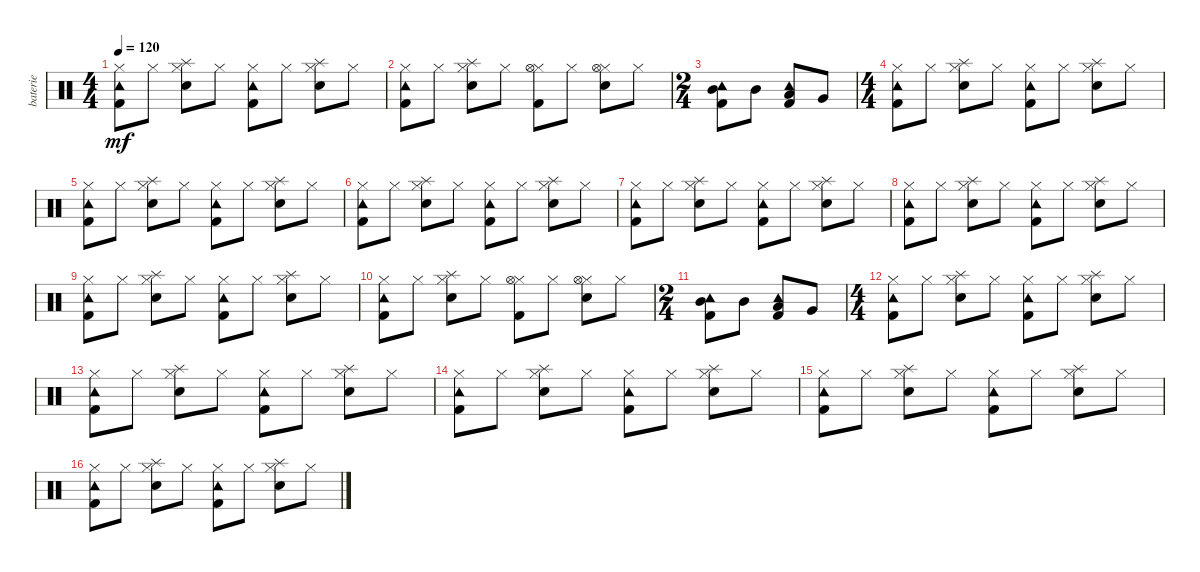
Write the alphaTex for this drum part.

\track ("baterie" "baterie") {instrument percussion}
\staff {score}
\articulation defaults
\ts (4 4)
\tempo 120
\clef neutral
\ks c
("Hi-Hat (closed)" "Tambourine (hit)" "Kick (hit) 2").8{dy mf} "Hi-Hat (closed)".8 ("Snare (hit) 2" "Splash (hit)" "Hi-Hat (closed)").8 "Hi-Hat (closed)".8 ("Kick (hit) 2" "Tambourine (hit)" "Hi-Hat (closed)").8 "Hi-Hat (closed)".8 ("Snare (hit) 2" "Splash (hit)" "Hi-Hat (closed)").8 "Hi-Hat (closed)".8 |
("Hi-Hat (closed)" "Tambourine (hit)" "Kick (hit) 2").8 "Hi-Hat (closed)".8 ("Snare (hit) 2" "Splash (hit)" "Hi-Hat (closed)").8 "Hi-Hat (closed)".8 ("Kick (hit) 2" "Hi-Hat (closed)" "Hi-Hat (open)").8 "Hi-Hat (closed)".8 ("Snare (hit) 2" "Hi-Hat (closed)" "Hi-Hat (open)").8 "Hi-Hat (closed)".8 |
\ts (2 4)
("Tambourine (hit)" "Kick (hit) 2" "Mid Tom (hit)").8 "Mid Tom (hit)".8 ("Low Tom (hit)" "Tambourine (hit)" "Kick (hit) 2").8 "Very Low Tom (hit)".8 |
\ts (4 4)
("Hi-Hat (closed)" "Tambourine (hit)" "Kick (hit) 2").8 "Hi-Hat (closed)".8 ("Snare (hit) 2" "Splash (hit)" "Hi-Hat (closed)").8 "Hi-Hat (closed)".8 ("Kick (hit) 2" "Tambourine (hit)" "Hi-Hat (closed)").8 "Hi-Hat (closed)".8 ("Snare (hit) 2" "Splash (hit)" "Hi-Hat (closed)").8 "Hi-Hat (closed)".8 |
("Hi-Hat (closed)" "Tambourine (hit)" "Kick (hit) 2").8 "Hi-Hat (closed)".8 ("Snare (hit) 2" "Splash (hit)" "Hi-Hat (closed)").8 "Hi-Hat (closed)".8 ("Kick (hit) 2" "Tambourine (hit)" "Hi-Hat (closed)").8 "Hi-Hat (closed)".8 ("Snare (hit) 2" "Splash (hit)" "Hi-Hat (closed)").8 "Hi-Hat (closed)".8 |
("Hi-Hat (closed)" "Tambourine (hit)" "Kick (hit) 2").8 "Hi-Hat (closed)".8 ("Snare (hit) 2" "Splash (hit)" "Hi-Hat (closed)").8 "Hi-Hat (closed)".8 ("Kick (hit) 2" "Tambourine (hit)" "Hi-Hat (closed)").8 "Hi-Hat (closed)".8 ("Snare (hit) 2" "Splash (hit)" "Hi-Hat (closed)").8 "Hi-Hat (closed)".8 |
("Hi-Hat (closed)" "Tambourine (hit)" "Kick (hit) 2").8 "Hi-Hat (closed)".8 ("Snare (hit) 2" "Splash (hit)" "Hi-Hat (closed)").8 "Hi-Hat (closed)".8 ("Kick (hit) 2" "Tambourine (hit)" "Hi-Hat (closed)").8 "Hi-Hat (closed)".8 ("Snare (hit) 2" "Splash (hit)" "Hi-Hat (closed)").8 "Hi-Hat (closed)".8 |
("Hi-Hat (closed)" "Tambourine (hit)" "Kick (hit) 2").8 "Hi-Hat (closed)".8 ("Snare (hit) 2" "Splash (hit)" "Hi-Hat (closed)").8 "Hi-Hat (closed)".8 ("Kick (hit) 2" "Tambourine (hit)" "Hi-Hat (closed)").8 "Hi-Hat (closed)".8 ("Snare (hit) 2" "Splash (hit)" "Hi-Hat (closed)").8 "Hi-Hat (closed)".8 |
("Hi-Hat (closed)" "Tambourine (hit)" "Kick (hit) 2").8 "Hi-Hat (closed)".8 ("Snare (hit) 2" "Splash (hit)" "Hi-Hat (closed)").8 "Hi-Hat (closed)".8 ("Kick (hit) 2" "Tambourine (hit)" "Hi-Hat (closed)").8 "Hi-Hat (closed)".8 ("Snare (hit) 2" "Splash (hit)" "Hi-Hat (closed)").8 "Hi-Hat (closed)".8 |
("Hi-Hat (closed)" "Tambourine (hit)" "Kick (hit) 2").8 "Hi-Hat (closed)".8 ("Snare (hit) 2" "Splash (hit)" "Hi-Hat (closed)").8 "Hi-Hat (closed)".8 ("Kick (hit) 2" "Hi-Hat (closed)" "Hi-Hat (open)").8 "Hi-Hat (closed)".8 ("Snare (hit) 2" "Hi-Hat (closed)" "Hi-Hat (open)").8 "Hi-Hat (closed)".8 |
\ts (2 4)
("Tambourine (hit)" "Kick (hit) 2" "Mid Tom (hit)").8 "Mid Tom (hit)".8 ("Low Tom (hit)" "Tambourine (hit)" "Kick (hit) 2").8 "Very Low Tom (hit)".8 |
\ts (4 4)
("Kick (hit) 2" "Tambourine (hit)" "Hi-Hat (closed)").8 "Hi-Hat (closed)".8 ("Snare (hit) 2" "Splash (hit)" "Hi-Hat (closed)").8 "Hi-Hat (closed)".8 ("Kick (hit) 2" "Tambourine (hit)" "Hi-Hat (closed)").8 "Hi-Hat (closed)".8 ("Snare (hit) 2" "Splash (hit)" "Hi-Hat (closed)").8 "Hi-Hat (closed)".8 |
("Hi-Hat (closed)" "Tambourine (hit)" "Kick (hit) 2").8 "Hi-Hat (closed)".8 ("Snare (hit) 2" "Splash (hit)" "Hi-Hat (closed)").8 "Hi-Hat (closed)".8 ("Kick (hit) 2" "Tambourine (hit)" "Hi-Hat (closed)").8 "Hi-Hat (closed)".8 ("Snare (hit) 2" "Splash (hit)" "Hi-Hat (closed)").8 "Hi-Hat (closed)".8 |
("Hi-Hat (closed)" "Tambourine (hit)" "Kick (hit) 2").8 "Hi-Hat (closed)".8 ("Snare (hit) 2" "Splash (hit)" "Hi-Hat (closed)").8 "Hi-Hat (closed)".8 ("Kick (hit) 2" "Tambourine (hit)" "Hi-Hat (closed)").8 "Hi-Hat (closed)".8 ("Snare (hit) 2" "Splash (hit)" "Hi-Hat (closed)").8 "Hi-Hat (closed)".8 |
("Hi-Hat (closed)" "Tambourine (hit)" "Kick (hit) 2").8 "Hi-Hat (closed)".8 ("Snare (hit) 2" "Splash (hit)" "Hi-Hat (closed)").8 "Hi-Hat (closed)".8 ("Kick (hit) 2" "Tambourine (hit)" "Hi-Hat (closed)").8 "Hi-Hat (closed)".8 ("Snare (hit) 2" "Splash (hit)" "Hi-Hat (closed)").8 "Hi-Hat (closed)".8 |
("Hi-Hat (closed)" "Tambourine (hit)" "Kick (hit) 2").8 "Hi-Hat (closed)".8 ("Snare (hit) 2" "Splash (hit)" "Hi-Hat (closed)").8 "Hi-Hat (closed)".8 ("Kick (hit) 2" "Tambourine (hit)" "Hi-Hat (closed)").8 "Hi-Hat (closed)".8 ("Snare (hit) 2" "Splash (hit)" "Hi-Hat (closed)").8 "Hi-Hat (closed)".8
